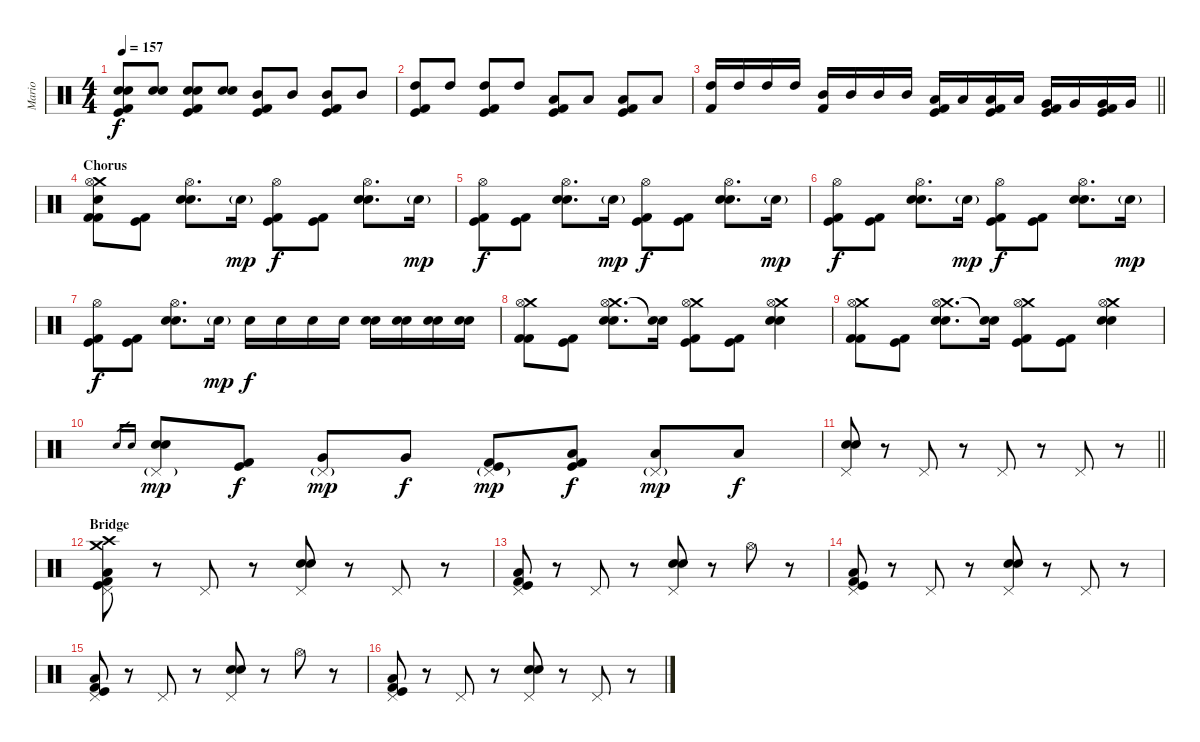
\track ("Mario" "Mario") {instrument percussion}
\staff {score}
\articulation defaults
\ts (4 4)
\tempo 157
\clef neutral
\ks c
("Snare (hit) 2" "Electric Snare (hit)" "Kick (hit)" "Kick (hit) 2").8{dy f} ("Snare (hit) 2" "Electric Snare (hit)").8 ("Snare (hit) 2" "Electric Snare (hit)" "Kick (hit)" "Kick (hit) 2").8 ("Snare (hit) 2" "Electric Snare (hit)").8 ("Mid Tom (hit)" "Kick (hit)" "Kick (hit) 2").8 "Mid Tom (hit)".8 ("Mid Tom (hit)" "Kick (hit)" "Kick (hit) 2").8 "Mid Tom (hit)".8 |
("High Tom (hit)" "Kick (hit)" "Kick (hit) 2").8 "High Tom (hit)".8 ("High Tom (hit)" "Kick (hit)" "Kick (hit) 2").8 "High Tom (hit)".8 ("Low Tom (hit)" "Kick (hit)" "Kick (hit) 2").8 "Low Tom (hit)".8 ("Low Tom (hit)" "Kick (hit)" "Kick (hit) 2").8 "Low Tom (hit)".8 |
\barLineRight lightlight
("High Tom (hit)" "Kick (hit) 2").16 "High Tom (hit)".16 "High Tom (hit)".16 "High Tom (hit)".16 ("Mid Tom (hit)" "Kick (hit) 2").16 "Mid Tom (hit)".16 "Mid Tom (hit)".16 "Mid Tom (hit)".16 ("Low Tom (hit)" "Kick (hit)" "Kick (hit) 2").16 "Low Tom (hit)".16 ("Low Tom (hit)" "Kick (hit)" "Kick (hit) 2").16 "Low Tom (hit)".16 ("Very Low Tom (hit)" "Kick (hit)" "Kick (hit) 2").16 "Very Low Tom (hit)".16 ("Very Low Tom (hit)" "Kick (hit)" "Kick (hit) 2").16 "Very Low Tom (hit)".16 |
\section ("" "Chorus")
("Crash medium (hit)" "Hi-Hat (open)" "Snare (hit) 2" "Kick (hit) 2" "Kick (hit) 2").8 ("Kick (hit)" "Kick (hit) 2").8 ("Hi-Hat (open)" "Electric Snare (hit)" "Snare (hit) 2").8{d} "Snare (hit) 2"{g}.16{dy mp} ("Hi-Hat (open)" "Kick (hit)" "Kick (hit) 2").8{dy f} ("Kick (hit)" "Kick (hit) 2").8 ("Hi-Hat (open)" "Electric Snare (hit)" "Snare (hit) 2").8{d} "Snare (hit) 2"{g}.16{dy mp} |
("Hi-Hat (open)" "Kick (hit)" "Kick (hit) 2").8{dy f} ("Kick (hit)" "Kick (hit) 2").8 ("Hi-Hat (open)" "Electric Snare (hit)" "Snare (hit) 2").8{d} "Snare (hit) 2"{g}.16{dy mp} ("Hi-Hat (open)" "Kick (hit)" "Kick (hit) 2").8{dy f} ("Kick (hit)" "Kick (hit) 2").8 ("Hi-Hat (open)" "Electric Snare (hit)" "Snare (hit) 2").8{d} "Snare (hit) 2"{g}.16{dy mp} |
("Hi-Hat (open)" "Kick (hit)" "Kick (hit) 2").8{dy f} ("Kick (hit)" "Kick (hit) 2").8 ("Hi-Hat (open)" "Electric Snare (hit)" "Snare (hit) 2").8{d} "Snare (hit) 2"{g}.16{dy mp} ("Hi-Hat (open)" "Kick (hit)" "Kick (hit) 2").8{dy f} ("Kick (hit)" "Kick (hit) 2").8 ("Hi-Hat (open)" "Electric Snare (hit)" "Snare (hit) 2").8{d} "Snare (hit) 2"{g}.16{dy mp} |
("Hi-Hat (open)" "Kick (hit)" "Kick (hit) 2").8{dy f} ("Kick (hit)" "Kick (hit) 2").8 ("Hi-Hat (open)" "Electric Snare (hit)" "Snare (hit) 2").8{d} "Snare (hit) 2"{g}.16{dy mp} "Snare (hit) 2".16{dy f} "Snare (hit) 2".16 "Snare (hit) 2".16 "Snare (hit) 2".16 ("Electric Snare (hit)" "Snare (hit) 2").16 ("Electric Snare (hit)" "Snare (hit) 2").16 ("Electric Snare (hit)" "Snare (hit) 2").16 ("Electric Snare (hit)" "Snare (hit) 2").16 |
("Crash medium (hit)" "Hi-Hat (open)" "Kick (hit) 2" "Kick (hit) 2").8 ("Kick (hit)" "Kick (hit) 2").8 ("Crash medium (hit)" "Hi-Hat (open)" "Electric Snare (hit)" "Snare (hit) 2").8{d} ("Snare (hit)"{t} "Snare (hit)"{t}).16 ("Crash medium (hit)" "Hi-Hat (open)" "Kick (hit)" "Kick (hit) 2").8 ("Kick (hit)" "Kick (hit) 2").8 ("Crash medium (hit)" "Hi-Hat (open)" "Electric Snare (hit)" "Snare (hit) 2").4 |
("Crash medium (hit)" "Hi-Hat (open)" "Kick (hit) 2" "Kick (hit) 2").8 ("Kick (hit)" "Kick (hit) 2").8 ("Crash medium (hit)" "Hi-Hat (open)" "Electric Snare (hit)" "Snare (hit) 2").8{d} ("Snare (hit)"{t} "Snare (hit)"{t}).16 ("Crash medium (hit)" "Hi-Hat (open)" "Kick (hit)" "Kick (hit) 2").8 ("Kick (hit)" "Kick (hit) 2").8 ("Crash medium (hit)" "Hi-Hat (open)" "Electric Snare (hit)" "Snare (hit) 2").4 |
"Electric Snare (hit)".16{gr} "Snare (hit) 2".16{gr} ("Pedal Hi-Hat (hit)"{g} "Electric Snare (hit)" "Snare (hit) 2").8{dy mp} ("Kick (hit)" "Kick (hit) 2").8{dy f} ("Pedal Hi-Hat (hit)"{g} "Very Low Tom (hit)").8{dy mp} "Very Low Tom (hit)".8{dy f} ("Pedal Hi-Hat (hit)"{g} "Kick (hit)" "Kick (hit) 2").8{dy mp} ("Low Floor Tom (hit)" "Kick (hit)" "Kick (hit) 2").8{dy f} ("Pedal Hi-Hat (hit)"{g} "Low Floor Tom (hit)").8{dy mp} "Low Floor Tom (hit)".8{dy f} |
\barLineRight lightlight
("Pedal Hi-Hat (hit)" "Electric Snare (hit)" "Snare (hit) 2").8 r.8 "Pedal Hi-Hat (hit)".8 r.8 "Pedal Hi-Hat (hit)".8 r.8 "Pedal Hi-Hat (hit)".8 r.8 |
\section ("" "Bridge")
("Pedal Hi-Hat (hit)" "Crash high (hit)" "Crash medium (hit)" "Low Floor Tom (hit)" "Kick (hit)" "Kick (hit) 2").8 r.8 "Pedal Hi-Hat (hit)".8 r.8 ("Pedal Hi-Hat (hit)" "Electric Snare (hit)" "Snare (hit) 2").8 r.8 "Pedal Hi-Hat (hit)".8 r.8 |
("Pedal Hi-Hat (hit)" "Low Floor Tom (hit)" "Kick (hit)" "Kick (hit) 2").8 r.8 "Pedal Hi-Hat (hit)".8 r.8 ("Pedal Hi-Hat (hit)" "Electric Snare (hit)" "Snare (hit) 2").8 r.8 "Hi-Hat (open)".8 r.8 |
("Pedal Hi-Hat (hit)" "Low Floor Tom (hit)" "Kick (hit)" "Kick (hit) 2").8 r.8 "Pedal Hi-Hat (hit)".8 r.8 ("Pedal Hi-Hat (hit)" "Electric Snare (hit)" "Snare (hit) 2").8 r.8 "Pedal Hi-Hat (hit)".8 r.8 |
("Pedal Hi-Hat (hit)" "Low Floor Tom (hit)" "Kick (hit)" "Kick (hit) 2").8 r.8 "Pedal Hi-Hat (hit)".8 r.8 ("Pedal Hi-Hat (hit)" "Electric Snare (hit)" "Snare (hit) 2").8 r.8 "Hi-Hat (open)".8 r.8 |
("Pedal Hi-Hat (hit)" "Low Floor Tom (hit)" "Kick (hit)" "Kick (hit) 2").8 r.8 "Pedal Hi-Hat (hit)".8 r.8 ("Pedal Hi-Hat (hit)" "Electric Snare (hit)" "Snare (hit) 2").8 r.8 "Pedal Hi-Hat (hit)".8 r.8
